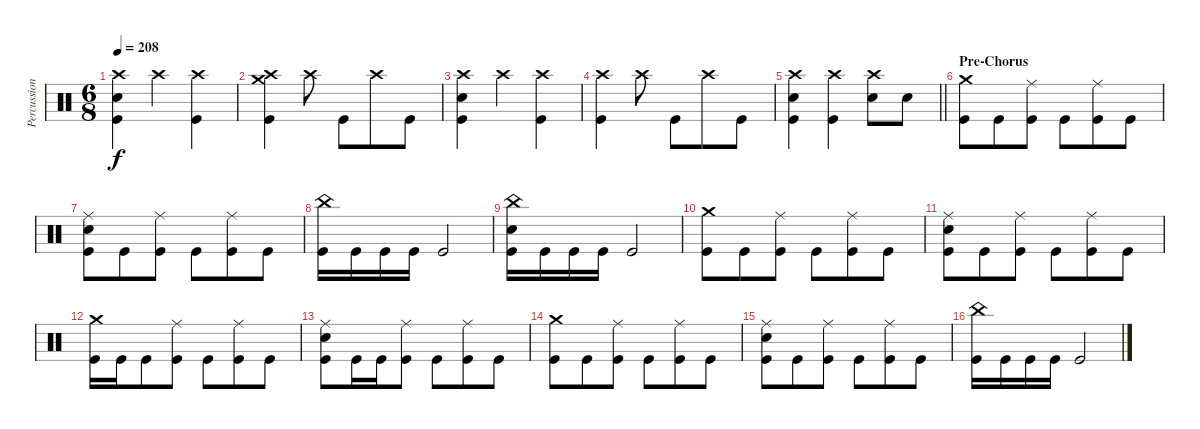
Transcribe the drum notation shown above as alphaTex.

\track ("Percussion" "Percussion") {instrument percussion}
\staff {score}
\articulation defaults
\ts (6 8)
\tempo 208
\clef neutral
\ks c
("Crash high (hit)" "Electric Snare (hit)" "Kick (hit)").4{dy f} "Crash high (hit)".4 ("Crash high (hit)" "Kick (hit)").4 |
("Crash medium (hit)" "Crash high (hit)" "Kick (hit)").4 "Crash high (hit)".8 "Kick (hit)".8 "Crash high (hit)".8 "Kick (hit)".8 |
("Crash high (hit)" "Electric Snare (hit)" "Kick (hit)").4 "Crash high (hit)".4 ("Crash high (hit)" "Kick (hit)").4 |
("Crash high (hit)" "Kick (hit)").4 "Crash high (hit)".8 "Kick (hit)".8 "Crash high (hit)".8 "Kick (hit)".8 |
\barLineRight lightlight
("Crash high (hit)" "Electric Snare (hit)" "Kick (hit)").4 ("Crash high (hit)" "Kick (hit)").4 ("Crash high (hit)" "Electric Snare (hit)").8 "Electric Snare (hit)".8 |
\section ("" "Pre-Chorus")
("Crash medium (hit)" "Kick (hit)").8 "Kick (hit)".8 ("Ride (middle)" "Kick (hit)").8 "Kick (hit)".8 ("Ride (middle)" "Kick (hit)").8 "Kick (hit)".8 |
("Ride (middle)" "Electric Snare (hit)" "Kick (hit)").8 "Kick (hit)".8 ("Ride (middle)" "Kick (hit)").8 "Kick (hit)".8 ("Ride (middle)" "Kick (hit)").8 "Kick (hit)".8 |
("China (hit)" "Kick (hit)").16 "Kick (hit)".16 "Kick (hit)".16 "Kick (hit)".16 "Kick (hit)".2 |
("China (hit)" "Electric Snare (hit)" "Kick (hit)").16 "Kick (hit)".16 "Kick (hit)".16 "Kick (hit)".16 "Kick (hit)".2 |
("Crash medium (hit)" "Kick (hit)").8 "Kick (hit)".8 ("Ride (middle)" "Kick (hit)").8 "Kick (hit)".8 ("Ride (middle)" "Kick (hit)").8 "Kick (hit)".8 |
("Ride (middle)" "Electric Snare (hit)" "Kick (hit)").8 "Kick (hit)".8 ("Ride (middle)" "Kick (hit)").8 "Kick (hit)".8 ("Ride (middle)" "Kick (hit)").8 "Kick (hit)".8 |
("Crash medium (hit)" "Kick (hit)").16 "Kick (hit)".16 "Kick (hit)".8 ("Ride (middle)" "Kick (hit)").8 "Kick (hit)".8 ("Ride (middle)" "Kick (hit)").8 "Kick (hit)".8 |
("Ride (middle)" "Electric Snare (hit)" "Kick (hit)").8 "Kick (hit)".16 "Kick (hit)".16 ("Ride (middle)" "Kick (hit)").8 "Kick (hit)".8 ("Ride (middle)" "Kick (hit)").8 "Kick (hit)".8 |
("Crash medium (hit)" "Kick (hit)").8 "Kick (hit)".8 ("Ride (middle)" "Kick (hit)").8 "Kick (hit)".8 ("Ride (middle)" "Kick (hit)").8 "Kick (hit)".8 |
("Ride (middle)" "Electric Snare (hit)" "Kick (hit)").8 "Kick (hit)".8 ("Ride (middle)" "Kick (hit)").8 "Kick (hit)".8 ("Ride (middle)" "Kick (hit)").8 "Kick (hit)".8 |
("China (hit)" "Kick (hit)").16 "Kick (hit)".16 "Kick (hit)".16 "Kick (hit)".16 "Kick (hit)".2
